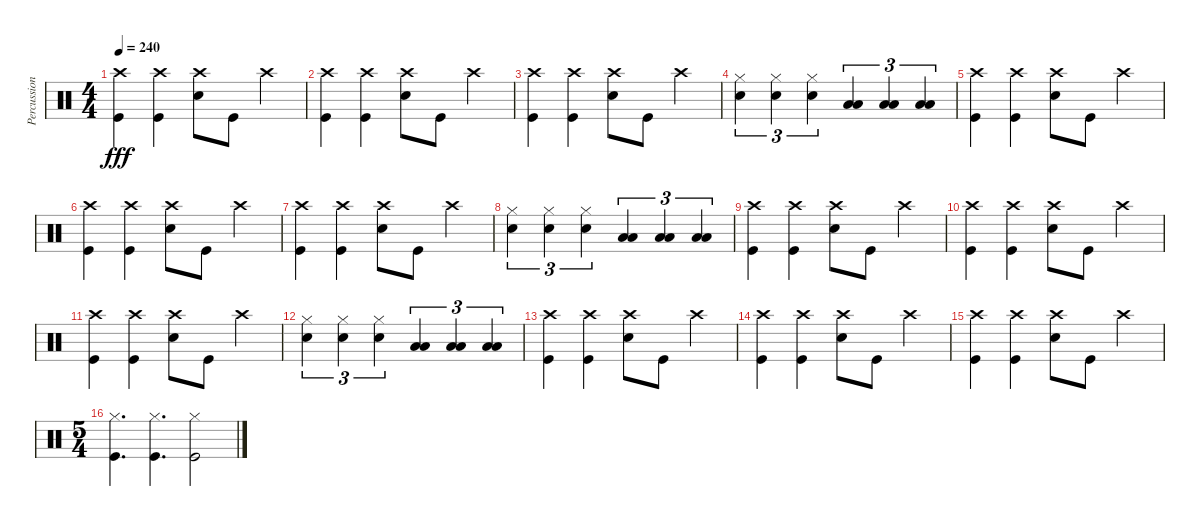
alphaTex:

\track ("Percussion" "Percussion") {instrument percussion}
\staff {score}
\articulation defaults
\ts (4 4)
\tempo 240
\clef neutral
\ks c
("Crash high (hit)" "Kick (hit)").4{dy fff volume 16} ("Crash high (hit)" "Kick (hit)").4 ("Crash high (hit)" "Snare (hit) 2").8 "Kick (hit)".8 "Crash high (hit)".4 |
("Crash high (hit)" "Kick (hit)").4 ("Crash high (hit)" "Kick (hit)").4 ("Crash high (hit)" "Snare (hit) 2").8 "Kick (hit)".8 "Crash high (hit)".4 |
("Crash high (hit)" "Kick (hit)").4 ("Crash high (hit)" "Kick (hit)").4 ("Crash high (hit)" "Snare (hit) 2").8 "Kick (hit)".8 "Crash high (hit)".4 |
("Hi-Hat (closed)" "Snare (hit) 2").4{tu (3 2)} ("Hi-Hat (closed)" "Snare (hit) 2").4{tu (3 2)} ("Hi-Hat (closed)" "Snare (hit) 2").4{tu (3 2)} ("Low Tom (hit)" "Low Floor Tom (hit)").4{tu (3 2)} ("Low Tom (hit)" "Low Floor Tom (hit)").4{tu (3 2)} ("Low Tom (hit)" "Low Floor Tom (hit)").4{tu (3 2)} |
("Crash high (hit)" "Kick (hit)").4{volume 16} ("Crash high (hit)" "Kick (hit)").4 ("Crash high (hit)" "Snare (hit) 2").8 "Kick (hit)".8 "Crash high (hit)".4 |
("Crash high (hit)" "Kick (hit)").4 ("Crash high (hit)" "Kick (hit)").4 ("Crash high (hit)" "Snare (hit) 2").8 "Kick (hit)".8 "Crash high (hit)".4 |
("Crash high (hit)" "Kick (hit)").4 ("Crash high (hit)" "Kick (hit)").4 ("Crash high (hit)" "Snare (hit) 2").8 "Kick (hit)".8 "Crash high (hit)".4 |
("Hi-Hat (closed)" "Snare (hit) 2").4{tu (3 2)} ("Hi-Hat (closed)" "Snare (hit) 2").4{tu (3 2)} ("Hi-Hat (closed)" "Snare (hit) 2").4{tu (3 2)} ("Low Tom (hit)" "Low Floor Tom (hit)").4{tu (3 2)} ("Low Tom (hit)" "Low Floor Tom (hit)").4{tu (3 2)} ("Low Tom (hit)" "Low Floor Tom (hit)").4{tu (3 2)} |
("Crash high (hit)" "Kick (hit)").4{volume 16} ("Crash high (hit)" "Kick (hit)").4 ("Crash high (hit)" "Snare (hit) 2").8 "Kick (hit)".8 "Crash high (hit)".4 |
("Crash high (hit)" "Kick (hit)").4 ("Crash high (hit)" "Kick (hit)").4 ("Crash high (hit)" "Snare (hit) 2").8 "Kick (hit)".8 "Crash high (hit)".4 |
("Crash high (hit)" "Kick (hit)").4 ("Crash high (hit)" "Kick (hit)").4 ("Crash high (hit)" "Snare (hit) 2").8 "Kick (hit)".8 "Crash high (hit)".4 |
("Hi-Hat (closed)" "Snare (hit) 2").4{tu (3 2)} ("Hi-Hat (closed)" "Snare (hit) 2").4{tu (3 2)} ("Hi-Hat (closed)" "Snare (hit) 2").4{tu (3 2)} ("Low Tom (hit)" "Low Floor Tom (hit)").4{tu (3 2)} ("Low Tom (hit)" "Low Floor Tom (hit)").4{tu (3 2)} ("Low Tom (hit)" "Low Floor Tom (hit)").4{tu (3 2)} |
("Crash high (hit)" "Kick (hit)").4{volume 16} ("Crash high (hit)" "Kick (hit)").4 ("Crash high (hit)" "Snare (hit) 2").8 "Kick (hit)".8 "Crash high (hit)".4 |
("Crash high (hit)" "Kick (hit)").4 ("Crash high (hit)" "Kick (hit)").4 ("Crash high (hit)" "Snare (hit) 2").8 "Kick (hit)".8 "Crash high (hit)".4 |
("Crash high (hit)" "Kick (hit)").4 ("Crash high (hit)" "Kick (hit)").4 ("Crash high (hit)" "Snare (hit) 2").8 "Kick (hit)".8 "Crash high (hit)".4 |
\ts (5 4)
("Hi-Hat (closed)" "Kick (hit)").4{d} ("Hi-Hat (closed)" "Kick (hit)").4{d} ("Hi-Hat (closed)" "Kick (hit)").2
